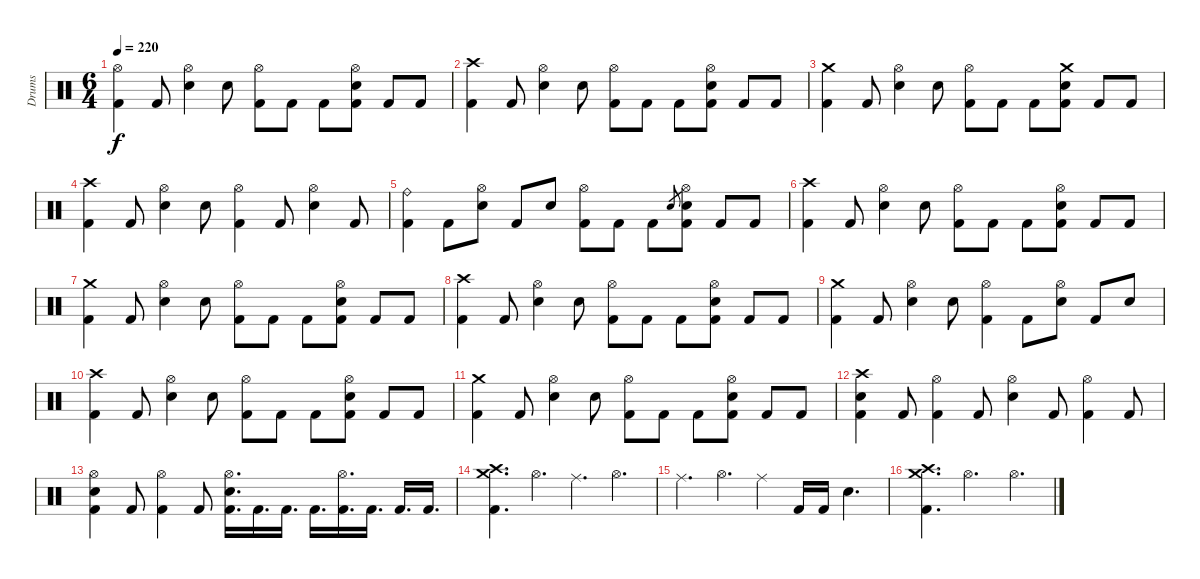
\track ("Drums" "Drums") {instrument percussion}
\staff {score}
\articulation defaults
\ts (6 4)
\tempo 220
\clef neutral
\ks c
("Hi-Hat (open)" "Kick (hit) 2").4{dy f} "Kick (hit) 2".8 ("Hi-Hat (open)" "Electric Snare (hit)").4 "Electric Snare (hit)".8 ("Hi-Hat (open)" "Kick (hit) 2").8 "Kick (hit) 2".8 "Kick (hit) 2".8 ("Hi-Hat (open)" "Electric Snare (hit)" "Kick (hit) 2").8 "Kick (hit) 2".8 "Kick (hit) 2".8 |
("Crash high (hit)" "Kick (hit) 2").4 "Kick (hit) 2".8 ("Hi-Hat (open)" "Electric Snare (hit)").4 "Electric Snare (hit)".8 ("Hi-Hat (open)" "Kick (hit) 2").8 "Kick (hit) 2".8 "Kick (hit) 2".8 ("Hi-Hat (open)" "Electric Snare (hit)" "Kick (hit) 2").8 "Kick (hit) 2".8 "Kick (hit) 2".8 |
("Crash medium (hit)" "Kick (hit) 2").4 "Kick (hit) 2".8 ("Hi-Hat (open)" "Electric Snare (hit)").4 "Electric Snare (hit)".8 ("Hi-Hat (open)" "Kick (hit) 2").8 "Kick (hit) 2".8 "Kick (hit) 2".8 ("Crash medium (hit)" "Electric Snare (hit)" "Kick (hit) 2").8 "Kick (hit) 2".8 "Kick (hit) 2".8 |
("Crash high (hit)" "Kick (hit) 2").4 "Kick (hit) 2".8 ("Hi-Hat (open)" "Electric Snare (hit)").4 "Electric Snare (hit)".8 ("Hi-Hat (open)" "Kick (hit) 2").4 "Kick (hit) 2".8 ("Hi-Hat (open)" "Electric Snare (hit)").4 "Kick (hit) 2".8 |
("Ride (bell)" "Kick (hit) 2").4 "Kick (hit) 2".8 ("Hi-Hat (open)" "Electric Snare (hit)").8 "Kick (hit) 2".8 "Electric Snare (hit)".8 ("Hi-Hat (open)" "Kick (hit) 2").8 "Kick (hit) 2".8 "Kick (hit) 2".8 "Electric Snare (hit)".8{gr} ("Hi-Hat (open)" "Electric Snare (hit)" "Kick (hit) 2").8 "Kick (hit) 2".8 "Kick (hit) 2".8 |
("Crash high (hit)" "Kick (hit) 2").4 "Kick (hit) 2".8 ("Hi-Hat (open)" "Electric Snare (hit)").4 "Electric Snare (hit)".8 ("Hi-Hat (open)" "Kick (hit) 2").8 "Kick (hit) 2".8 "Kick (hit) 2".8 ("Hi-Hat (open)" "Electric Snare (hit)" "Kick (hit) 2").8 "Kick (hit) 2".8 "Kick (hit) 2".8 |
("Crash medium (hit)" "Kick (hit) 2").4 "Kick (hit) 2".8 ("Hi-Hat (open)" "Electric Snare (hit)").4 "Electric Snare (hit)".8 ("Hi-Hat (open)" "Kick (hit) 2").8 "Kick (hit) 2".8 "Kick (hit) 2".8 ("Hi-Hat (open)" "Electric Snare (hit)" "Kick (hit) 2").8 "Kick (hit) 2".8 "Kick (hit) 2".8 |
("Crash high (hit)" "Kick (hit) 2").4 "Kick (hit) 2".8 ("Hi-Hat (open)" "Electric Snare (hit)").4 "Electric Snare (hit)".8 ("Hi-Hat (open)" "Kick (hit) 2").8 "Kick (hit) 2".8 "Kick (hit) 2".8 ("Hi-Hat (open)" "Electric Snare (hit)" "Kick (hit) 2").8 "Kick (hit) 2".8 "Kick (hit) 2".8 |
("Crash medium (hit)" "Kick (hit) 2").4 "Kick (hit) 2".8 ("Hi-Hat (open)" "Electric Snare (hit)").4 "Electric Snare (hit)".8 ("Hi-Hat (open)" "Kick (hit) 2").4 "Kick (hit) 2".8 ("Hi-Hat (open)" "Electric Snare (hit)").8 "Kick (hit) 2".8 "Electric Snare (hit)".8 |
("Crash high (hit)" "Kick (hit) 2").4 "Kick (hit) 2".8 ("Hi-Hat (open)" "Electric Snare (hit)").4 "Electric Snare (hit)".8 ("Hi-Hat (open)" "Kick (hit) 2").8 "Kick (hit) 2".8 "Kick (hit) 2".8 ("Hi-Hat (open)" "Electric Snare (hit)" "Kick (hit) 2").8 "Kick (hit) 2".8 "Kick (hit) 2".8 |
("Crash medium (hit)" "Kick (hit) 2").4 "Kick (hit) 2".8 ("Hi-Hat (open)" "Electric Snare (hit)").4 "Electric Snare (hit)".8 ("Hi-Hat (open)" "Kick (hit) 2").8 "Kick (hit) 2".8 "Kick (hit) 2".8 ("Hi-Hat (open)" "Electric Snare (hit)" "Kick (hit) 2").8 "Kick (hit) 2".8 "Kick (hit) 2".8 |
("Crash high (hit)" "Electric Snare (hit)" "Kick (hit) 2").4 "Kick (hit) 2".8 ("Hi-Hat (open)" "Kick (hit) 2").4 "Kick (hit) 2".8 ("Hi-Hat (open)" "Electric Snare (hit)").4 "Kick (hit) 2".8 ("Hi-Hat (open)" "Kick (hit) 2").4 "Kick (hit) 2".8 |
("Hi-Hat (open)" "Electric Snare (hit)" "Kick (hit) 2").4 "Kick (hit) 2".8 ("Hi-Hat (open)" "Kick (hit) 2").4 "Kick (hit) 2".8 ("Hi-Hat (open)" "Electric Snare (hit)" "Kick (hit) 2").16{d} "Kick (hit) 2".16{d} "Kick (hit) 2".16{d} "Kick (hit) 2".16{d} ("Hi-Hat (open)" "Kick (hit) 2").16{d} "Kick (hit) 2".16{d} "Kick (hit) 2".16{d} "Kick (hit) 2".16{d} |
("Crash medium (hit)" "Crash high (hit)" "Kick (hit) 2").4{d} "Hi-Hat (open)".4{d} "Ride (middle)".4{d} "Hi-Hat (open)".4{d} |
"Ride (middle)".4{d} "Hi-Hat (open)".4{d} "Ride (middle)".4 "Kick (hit) 2".16 "Kick (hit) 2".16 "Electric Snare (hit)".4{d} |
("Crash medium (hit)" "Crash high (hit)" "Kick (hit) 2").4{d} "Hi-Hat (open)".2{d} "Hi-Hat (open)".4{d}
